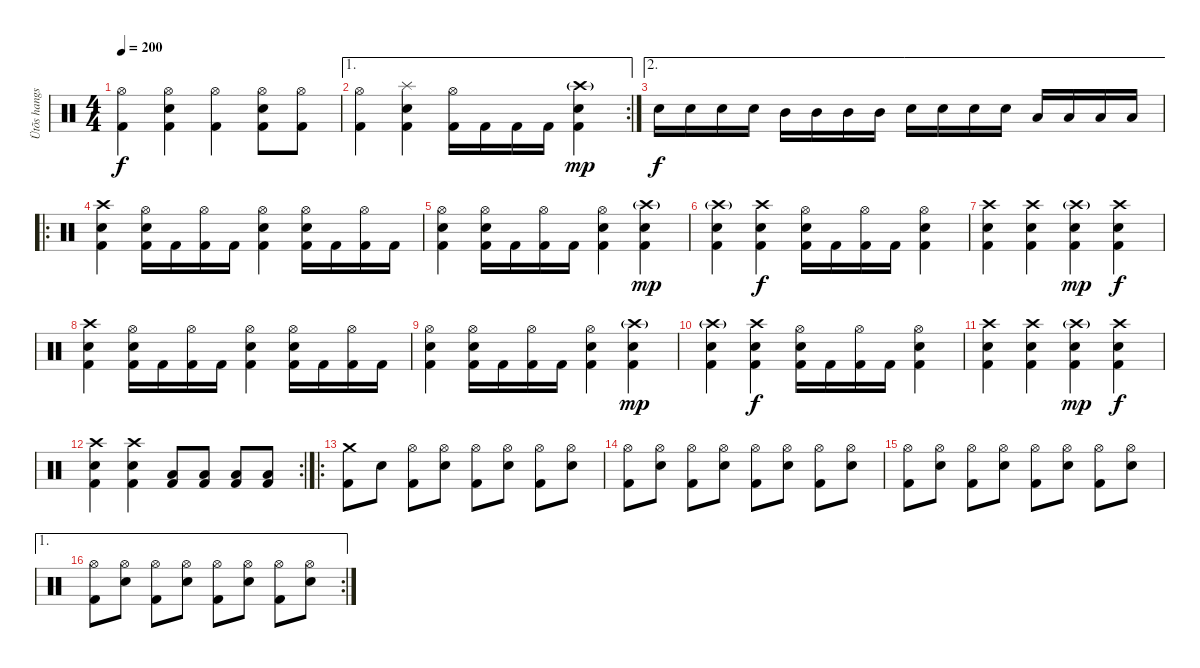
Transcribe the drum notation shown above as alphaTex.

\track ("Ütõs hangszer" "Ütõs hangs") {instrument percussion}
\staff {score}
\articulation defaults
\ts (4 4)
\tempo 200
\clef neutral
\ks c
("Hi-Hat (open)" "Kick (hit) 2").4{dy f} ("Hi-Hat (open)" "Snare (hit) 2" "Kick (hit) 2").4 ("Hi-Hat (open)" "Kick (hit) 2").4 ("Hi-Hat (open)" "Snare (hit) 2" "Kick (hit) 2").8 ("Hi-Hat (open)" "Kick (hit) 2").8 |
\ae 1
\rc 2
("Hi-Hat (open)" "Kick (hit) 2").4 ("Splash (hit)" "Snare (hit) 2" "Kick (hit) 2").4 ("Hi-Hat (open)" "Kick (hit) 2").16 "Kick (hit) 2".16 "Kick (hit) 2".16 "Kick (hit) 2".16 ("Crash high (hit)"{g} "Snare (hit) 2" "Kick (hit) 2").4{dy mp} |
\ae 2 "Snare (hit) 2".16{dy f} "Snare (hit) 2".16 "Snare (hit) 2".16 "Snare (hit) 2".16 "Mid Tom (hit)".16 "Mid Tom (hit)".16 "Mid Tom (hit)".16 "Mid Tom (hit)".16 "Snare (hit) 2".16 "Snare (hit) 2".16 "Snare (hit) 2".16 "Snare (hit) 2".16 "Low Tom (hit)".16 "Low Tom (hit)".16 "Low Tom (hit)".16 "Low Tom (hit)".16
|
\ro
("Crash high (hit)" "Snare (hit) 2" "Kick (hit) 2").4 ("Hi-Hat (open)" "Snare (hit) 2" "Kick (hit) 2").16 "Kick (hit) 2".16 ("Hi-Hat (open)" "Kick (hit) 2").16 "Kick (hit) 2".16 ("Hi-Hat (open)" "Snare (hit) 2" "Kick (hit) 2").4 ("Hi-Hat (open)" "Snare (hit) 2" "Kick (hit) 2").16 "Kick (hit) 2".16 ("Hi-Hat (open)" "Kick (hit) 2").16 "Kick (hit) 2".16 |
("Hi-Hat (open)" "Snare (hit) 2" "Kick (hit) 2").4 ("Hi-Hat (open)" "Snare (hit) 2" "Kick (hit) 2").16 "Kick (hit) 2".16 ("Hi-Hat (open)" "Kick (hit) 2").16 "Kick (hit) 2".16 ("Hi-Hat (open)" "Snare (hit) 2" "Kick (hit) 2").4 ("Crash high (hit)"{g} "Snare (hit) 2" "Kick (hit) 2").4{dy mp} |
("Crash high (hit)"{g} "Snare (hit) 2" "Kick (hit) 2").4 ("Crash high (hit)" "Snare (hit) 2" "Kick (hit) 2").4{dy f} ("Hi-Hat (open)" "Snare (hit) 2" "Kick (hit) 2").16 "Kick (hit) 2".16 ("Hi-Hat (open)" "Kick (hit) 2").16 "Kick (hit) 2".16 ("Hi-Hat (open)" "Snare (hit) 2" "Kick (hit) 2").4 |
("Crash high (hit)" "Snare (hit) 2" "Kick (hit) 2").4 ("Crash high (hit)" "Snare (hit) 2" "Kick (hit) 2").4 ("Crash high (hit)"{g} "Snare (hit) 2" "Kick (hit) 2").4{dy mp} ("Crash high (hit)" "Snare (hit) 2" "Kick (hit) 2").4{dy f} |
("Crash high (hit)" "Snare (hit) 2" "Kick (hit) 2").4 ("Hi-Hat (open)" "Snare (hit) 2" "Kick (hit) 2").16 "Kick (hit) 2".16 ("Hi-Hat (open)" "Kick (hit) 2").16 "Kick (hit) 2".16 ("Hi-Hat (open)" "Snare (hit) 2" "Kick (hit) 2").4 ("Hi-Hat (open)" "Snare (hit) 2" "Kick (hit) 2").16 "Kick (hit) 2".16 ("Hi-Hat (open)" "Kick (hit) 2").16 "Kick (hit) 2".16 |
("Hi-Hat (open)" "Snare (hit) 2" "Kick (hit) 2").4 ("Hi-Hat (open)" "Snare (hit) 2" "Kick (hit) 2").16 "Kick (hit) 2".16 ("Hi-Hat (open)" "Kick (hit) 2").16 "Kick (hit) 2".16 ("Hi-Hat (open)" "Snare (hit) 2" "Kick (hit) 2").4 ("Crash high (hit)"{g} "Snare (hit) 2" "Kick (hit) 2").4{dy mp} |
("Crash high (hit)"{g} "Snare (hit) 2" "Kick (hit) 2").4 ("Crash high (hit)" "Snare (hit) 2" "Kick (hit) 2").4{dy f} ("Hi-Hat (open)" "Snare (hit) 2" "Kick (hit) 2").16 "Kick (hit) 2".16 ("Hi-Hat (open)" "Kick (hit) 2").16 "Kick (hit) 2".16 ("Hi-Hat (open)" "Snare (hit) 2" "Kick (hit) 2").4 |
("Crash high (hit)" "Snare (hit) 2" "Kick (hit) 2").4 ("Crash high (hit)" "Snare (hit) 2" "Kick (hit) 2").4 ("Crash high (hit)"{g} "Snare (hit) 2" "Kick (hit) 2").4{dy mp} ("Crash high (hit)" "Snare (hit) 2" "Kick (hit) 2").4{dy f} |
\rc 2
("Crash high (hit)" "Snare (hit) 2" "Kick (hit) 2").4 ("Crash high (hit)" "Snare (hit) 2" "Kick (hit) 2").4 ("Low Tom (hit)" "Kick (hit) 2").8 ("Low Tom (hit)" "Kick (hit) 2").8 ("Low Tom (hit)" "Kick (hit) 2").8 ("Low Tom (hit)" "Kick (hit) 2").8 |
\ro
("Crash medium (hit)" "Kick (hit) 2").8 "Snare (hit) 2".8 ("Hi-Hat (open)" "Kick (hit) 2").8 ("Hi-Hat (open)" "Snare (hit) 2").8 ("Hi-Hat (open)" "Kick (hit) 2").8 ("Hi-Hat (open)" "Snare (hit) 2").8 ("Hi-Hat (open)" "Kick (hit) 2").8 ("Hi-Hat (open)" "Snare (hit) 2").8 |
("Hi-Hat (open)" "Kick (hit) 2").8 ("Hi-Hat (open)" "Snare (hit) 2").8 ("Hi-Hat (open)" "Kick (hit) 2").8 ("Hi-Hat (open)" "Snare (hit) 2").8 ("Hi-Hat (open)" "Kick (hit) 2").8 ("Hi-Hat (open)" "Snare (hit) 2").8 ("Hi-Hat (open)" "Kick (hit) 2").8 ("Hi-Hat (open)" "Snare (hit) 2").8 |
("Hi-Hat (open)" "Kick (hit) 2").8 ("Hi-Hat (open)" "Snare (hit) 2").8 ("Hi-Hat (open)" "Kick (hit) 2").8 ("Hi-Hat (open)" "Snare (hit) 2").8 ("Hi-Hat (open)" "Kick (hit) 2").8 ("Hi-Hat (open)" "Snare (hit) 2").8 ("Hi-Hat (open)" "Kick (hit) 2").8 ("Hi-Hat (open)" "Snare (hit) 2").8 |
\ae 1
\rc 2
("Hi-Hat (open)" "Kick (hit) 2").8 ("Hi-Hat (open)" "Snare (hit) 2").8 ("Hi-Hat (open)" "Kick (hit) 2").8 ("Hi-Hat (open)" "Snare (hit) 2").8 ("Hi-Hat (open)" "Kick (hit) 2").8 ("Hi-Hat (open)" "Snare (hit) 2").8 ("Hi-Hat (open)" "Kick (hit) 2").8 ("Hi-Hat (open)" "Snare (hit) 2").8
